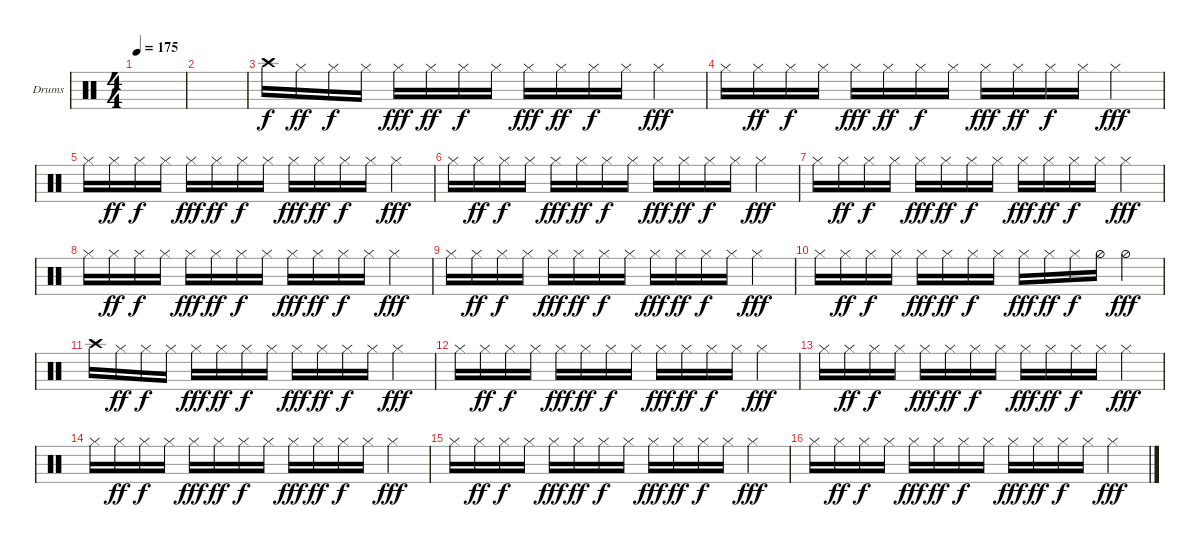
\defaultSystemsLayout 4
\bracketExtendMode groupsimilarinstruments
\firstSystemTrackNameOrientation horizontal
\otherSystemsTrackNameOrientation horizontal
\track ("Helders" "Drums") {instrument percussion}
\staff {score}
\articulation defaults
\ts (4 4)
\tempo 175
\clef neutral
\ks c
|
|
"Crash high (hit)".16 "Hi-Hat (closed)".16{dy ff} "Hi-Hat (closed)".16{dy f} "Hi-Hat (closed)".16 "Hi-Hat (closed)".16{dy fff} "Hi-Hat (closed)".16{dy ff} "Hi-Hat (closed)".16{dy f} "Hi-Hat (closed)".16 "Hi-Hat (closed)".16{dy fff} "Hi-Hat (closed)".16{dy ff} "Hi-Hat (closed)".16{dy f} "Hi-Hat (closed)".16 "Hi-Hat (closed)".4{dy fff} |
"Hi-Hat (closed)".16 "Hi-Hat (closed)".16{dy ff} "Hi-Hat (closed)".16{dy f} "Hi-Hat (closed)".16 "Hi-Hat (closed)".16{dy fff} "Hi-Hat (closed)".16{dy ff} "Hi-Hat (closed)".16{dy f} "Hi-Hat (closed)".16 "Hi-Hat (closed)".16{dy fff} "Hi-Hat (closed)".16{dy ff} "Hi-Hat (closed)".16{dy f} "Hi-Hat (closed)".16 "Hi-Hat (closed)".4{dy fff} |
"Hi-Hat (closed)".16 "Hi-Hat (closed)".16{dy ff} "Hi-Hat (closed)".16{dy f} "Hi-Hat (closed)".16 "Hi-Hat (closed)".16{dy fff} "Hi-Hat (closed)".16{dy ff} "Hi-Hat (closed)".16{dy f} "Hi-Hat (closed)".16 "Hi-Hat (closed)".16{dy fff} "Hi-Hat (closed)".16{dy ff} "Hi-Hat (closed)".16{dy f} "Hi-Hat (closed)".16 "Hi-Hat (closed)".4{dy fff} |
"Hi-Hat (closed)".16 "Hi-Hat (closed)".16{dy ff} "Hi-Hat (closed)".16{dy f} "Hi-Hat (closed)".16 "Hi-Hat (closed)".16{dy fff} "Hi-Hat (closed)".16{dy ff} "Hi-Hat (closed)".16{dy f} "Hi-Hat (closed)".16 "Hi-Hat (closed)".16{dy fff} "Hi-Hat (closed)".16{dy ff} "Hi-Hat (closed)".16{dy f} "Hi-Hat (closed)".16 "Hi-Hat (closed)".4{dy fff} |
"Hi-Hat (closed)".16 "Hi-Hat (closed)".16{dy ff} "Hi-Hat (closed)".16{dy f} "Hi-Hat (closed)".16 "Hi-Hat (closed)".16{dy fff} "Hi-Hat (closed)".16{dy ff} "Hi-Hat (closed)".16{dy f} "Hi-Hat (closed)".16 "Hi-Hat (closed)".16{dy fff} "Hi-Hat (closed)".16{dy ff} "Hi-Hat (closed)".16{dy f} "Hi-Hat (closed)".16 "Hi-Hat (closed)".4{dy fff} |
"Hi-Hat (closed)".16 "Hi-Hat (closed)".16{dy ff} "Hi-Hat (closed)".16{dy f} "Hi-Hat (closed)".16 "Hi-Hat (closed)".16{dy fff} "Hi-Hat (closed)".16{dy ff} "Hi-Hat (closed)".16{dy f} "Hi-Hat (closed)".16 "Hi-Hat (closed)".16{dy fff} "Hi-Hat (closed)".16{dy ff} "Hi-Hat (closed)".16{dy f} "Hi-Hat (closed)".16 "Hi-Hat (closed)".4{dy fff} |
"Hi-Hat (closed)".16 "Hi-Hat (closed)".16{dy ff} "Hi-Hat (closed)".16{dy f} "Hi-Hat (closed)".16 "Hi-Hat (closed)".16{dy fff} "Hi-Hat (closed)".16{dy ff} "Hi-Hat (closed)".16{dy f} "Hi-Hat (closed)".16 "Hi-Hat (closed)".16{dy fff} "Hi-Hat (closed)".16{dy ff} "Hi-Hat (closed)".16{dy f} "Hi-Hat (closed)".16 "Hi-Hat (closed)".4{dy fff} |
"Hi-Hat (closed)".16 "Hi-Hat (closed)".16{dy ff} "Hi-Hat (closed)".16{dy f} "Hi-Hat (closed)".16 "Hi-Hat (closed)".16{dy fff} "Hi-Hat (closed)".16{dy ff} "Hi-Hat (closed)".16{dy f} "Hi-Hat (closed)".16 "Hi-Hat (closed)".16{dy fff} "Hi-Hat (closed)".16{dy ff} "Hi-Hat (closed)".16{dy f} "Hi-Hat (half)".16 "Hi-Hat (half)".4{dy fff} |
"Crash high (hit)".16 "Hi-Hat (closed)".16{dy ff} "Hi-Hat (closed)".16{dy f} "Hi-Hat (closed)".16 "Hi-Hat (closed)".16{dy fff} "Hi-Hat (closed)".16{dy ff} "Hi-Hat (closed)".16{dy f} "Hi-Hat (closed)".16 "Hi-Hat (closed)".16{dy fff} "Hi-Hat (closed)".16{dy ff} "Hi-Hat (closed)".16{dy f} "Hi-Hat (closed)".16 "Hi-Hat (closed)".4{dy fff} |
"Hi-Hat (closed)".16 "Hi-Hat (closed)".16{dy ff} "Hi-Hat (closed)".16{dy f} "Hi-Hat (closed)".16 "Hi-Hat (closed)".16{dy fff} "Hi-Hat (closed)".16{dy ff} "Hi-Hat (closed)".16{dy f} "Hi-Hat (closed)".16 "Hi-Hat (closed)".16{dy fff} "Hi-Hat (closed)".16{dy ff} "Hi-Hat (closed)".16{dy f} "Hi-Hat (closed)".16 "Hi-Hat (closed)".4{dy fff} |
"Hi-Hat (closed)".16 "Hi-Hat (closed)".16{dy ff} "Hi-Hat (closed)".16{dy f} "Hi-Hat (closed)".16 "Hi-Hat (closed)".16{dy fff} "Hi-Hat (closed)".16{dy ff} "Hi-Hat (closed)".16{dy f} "Hi-Hat (closed)".16 "Hi-Hat (closed)".16{dy fff} "Hi-Hat (closed)".16{dy ff} "Hi-Hat (closed)".16{dy f} "Hi-Hat (closed)".16 "Hi-Hat (closed)".4{dy fff} |
"Hi-Hat (closed)".16 "Hi-Hat (closed)".16{dy ff} "Hi-Hat (closed)".16{dy f} "Hi-Hat (closed)".16 "Hi-Hat (closed)".16{dy fff} "Hi-Hat (closed)".16{dy ff} "Hi-Hat (closed)".16{dy f} "Hi-Hat (closed)".16 "Hi-Hat (closed)".16{dy fff} "Hi-Hat (closed)".16{dy ff} "Hi-Hat (closed)".16{dy f} "Hi-Hat (closed)".16 "Hi-Hat (closed)".4{dy fff} |
"Hi-Hat (closed)".16 "Hi-Hat (closed)".16{dy ff} "Hi-Hat (closed)".16{dy f} "Hi-Hat (closed)".16 "Hi-Hat (closed)".16{dy fff} "Hi-Hat (closed)".16{dy ff} "Hi-Hat (closed)".16{dy f} "Hi-Hat (closed)".16 "Hi-Hat (closed)".16{dy fff} "Hi-Hat (closed)".16{dy ff} "Hi-Hat (closed)".16{dy f} "Hi-Hat (closed)".16 "Hi-Hat (closed)".4{dy fff} |
"Hi-Hat (closed)".16 "Hi-Hat (closed)".16{dy ff} "Hi-Hat (closed)".16{dy f} "Hi-Hat (closed)".16 "Hi-Hat (closed)".16{dy fff} "Hi-Hat (closed)".16{dy ff} "Hi-Hat (closed)".16{dy f} "Hi-Hat (closed)".16 "Hi-Hat (closed)".16{dy fff} "Hi-Hat (closed)".16{dy ff} "Hi-Hat (closed)".16{dy f} "Hi-Hat (closed)".16 "Hi-Hat (closed)".4{dy fff}
